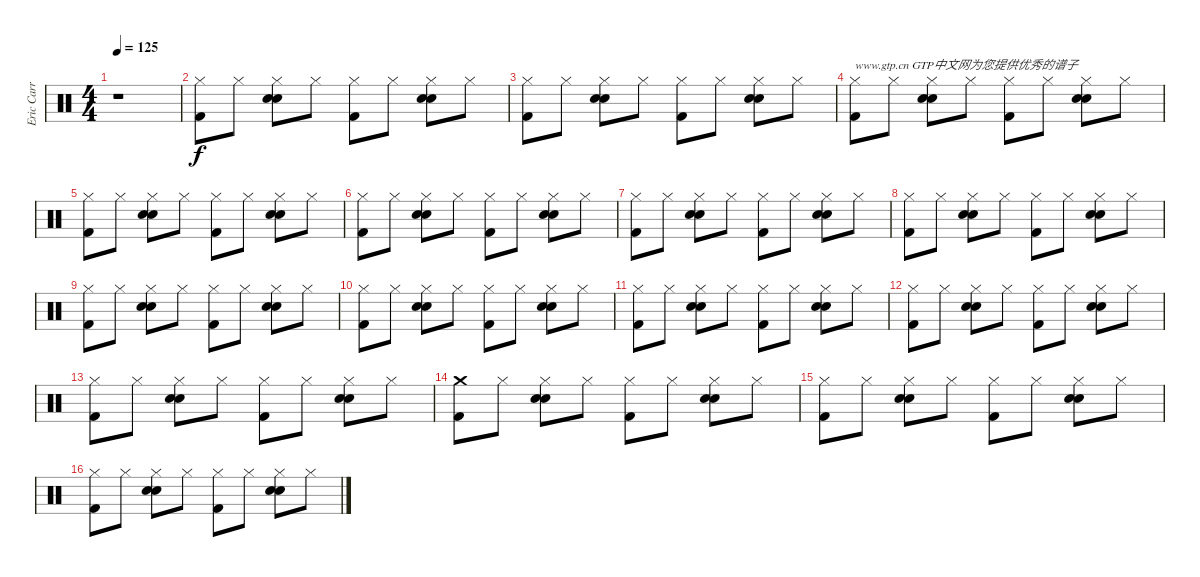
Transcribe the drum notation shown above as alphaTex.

\track ("Eric Carr" "Eric Carr") {instrument percussion}
\staff {score}
\articulation defaults
\ts (4 4)
\tempo 125
\clef neutral
\ks c
r.1{dy f} |
("Hi-Hat (closed)" "Kick (hit) 2").8 "Hi-Hat (closed)".8 ("Hi-Hat (closed)" "Electric Snare (hit)" "Snare (hit) 2").8 "Hi-Hat (closed)".8 ("Hi-Hat (closed)" "Kick (hit) 2").8 "Hi-Hat (closed)".8 ("Hi-Hat (closed)" "Snare (hit) 2" "Electric Snare (hit)").8 "Hi-Hat (closed)".8 |
("Hi-Hat (closed)" "Kick (hit) 2").8 "Hi-Hat (closed)".8 ("Hi-Hat (closed)" "Electric Snare (hit)" "Snare (hit) 2").8 "Hi-Hat (closed)".8 ("Hi-Hat (closed)" "Kick (hit) 2").8 "Hi-Hat (closed)".8 ("Hi-Hat (closed)" "Snare (hit) 2" "Electric Snare (hit)").8 "Hi-Hat (closed)".8 |
("Hi-Hat (closed)" "Kick (hit) 2").8{txt "www.gtp.cn GTP中文网为您提供优秀的谱子"} "Hi-Hat (closed)".8 ("Hi-Hat (closed)" "Electric Snare (hit)" "Snare (hit) 2").8 "Hi-Hat (closed)".8 ("Hi-Hat (closed)" "Kick (hit) 2").8 "Hi-Hat (closed)".8 ("Hi-Hat (closed)" "Snare (hit) 2" "Electric Snare (hit)").8 "Hi-Hat (closed)".8 |
("Hi-Hat (closed)" "Kick (hit) 2").8 "Hi-Hat (closed)".8 ("Hi-Hat (closed)" "Electric Snare (hit)" "Snare (hit) 2").8 "Hi-Hat (closed)".8 ("Hi-Hat (closed)" "Kick (hit) 2").8 "Hi-Hat (closed)".8 ("Hi-Hat (closed)" "Snare (hit) 2" "Electric Snare (hit)").8 "Hi-Hat (closed)".8 |
("Hi-Hat (closed)" "Kick (hit) 2").8 "Hi-Hat (closed)".8 ("Hi-Hat (closed)" "Electric Snare (hit)" "Snare (hit) 2").8 "Hi-Hat (closed)".8 ("Hi-Hat (closed)" "Kick (hit) 2").8 "Hi-Hat (closed)".8 ("Hi-Hat (closed)" "Snare (hit) 2" "Electric Snare (hit)").8 "Hi-Hat (closed)".8 |
("Hi-Hat (closed)" "Kick (hit) 2").8 "Hi-Hat (closed)".8 ("Hi-Hat (closed)" "Electric Snare (hit)" "Snare (hit) 2").8 "Hi-Hat (closed)".8 ("Hi-Hat (closed)" "Kick (hit) 2").8 "Hi-Hat (closed)".8 ("Hi-Hat (closed)" "Snare (hit) 2" "Electric Snare (hit)").8 "Hi-Hat (closed)".8 |
("Hi-Hat (closed)" "Kick (hit) 2").8 "Hi-Hat (closed)".8 ("Hi-Hat (closed)" "Electric Snare (hit)" "Snare (hit) 2").8 "Hi-Hat (closed)".8 ("Hi-Hat (closed)" "Kick (hit) 2").8 "Hi-Hat (closed)".8 ("Hi-Hat (closed)" "Snare (hit) 2" "Electric Snare (hit)").8 "Hi-Hat (closed)".8 |
("Hi-Hat (closed)" "Kick (hit) 2").8 "Hi-Hat (closed)".8 ("Hi-Hat (closed)" "Electric Snare (hit)" "Snare (hit) 2").8 "Hi-Hat (closed)".8 ("Hi-Hat (closed)" "Kick (hit) 2").8 "Hi-Hat (closed)".8 ("Hi-Hat (closed)" "Snare (hit) 2" "Electric Snare (hit)").8 "Hi-Hat (closed)".8 |
("Hi-Hat (closed)" "Kick (hit) 2").8 "Hi-Hat (closed)".8 ("Hi-Hat (closed)" "Electric Snare (hit)" "Snare (hit) 2").8 "Hi-Hat (closed)".8 ("Hi-Hat (closed)" "Kick (hit) 2").8 "Hi-Hat (closed)".8 ("Hi-Hat (closed)" "Snare (hit) 2" "Electric Snare (hit)").8 "Hi-Hat (closed)".8 |
("Hi-Hat (closed)" "Kick (hit) 2").8 "Hi-Hat (closed)".8 ("Hi-Hat (closed)" "Electric Snare (hit)" "Snare (hit) 2").8 "Hi-Hat (closed)".8 ("Hi-Hat (closed)" "Kick (hit) 2").8 "Hi-Hat (closed)".8 ("Hi-Hat (closed)" "Snare (hit) 2" "Electric Snare (hit)").8 "Hi-Hat (closed)".8 |
("Hi-Hat (closed)" "Kick (hit) 2").8 "Hi-Hat (closed)".8 ("Hi-Hat (closed)" "Electric Snare (hit)" "Snare (hit) 2").8 "Hi-Hat (closed)".8 ("Hi-Hat (closed)" "Kick (hit) 2").8 "Hi-Hat (closed)".8 ("Hi-Hat (closed)" "Snare (hit) 2" "Electric Snare (hit)").8 "Hi-Hat (closed)".8 |
("Hi-Hat (closed)" "Kick (hit) 2").8 "Hi-Hat (closed)".8 ("Hi-Hat (closed)" "Electric Snare (hit)" "Snare (hit) 2").8 "Hi-Hat (closed)".8 ("Hi-Hat (closed)" "Kick (hit) 2").8 "Hi-Hat (closed)".8 ("Hi-Hat (closed)" "Snare (hit) 2" "Electric Snare (hit)").8 "Hi-Hat (closed)".8 |
("Crash medium (hit)" "Kick (hit) 2").8 "Hi-Hat (closed)".8 ("Hi-Hat (closed)" "Electric Snare (hit)" "Snare (hit) 2").8 "Hi-Hat (closed)".8 ("Hi-Hat (closed)" "Kick (hit) 2").8 "Hi-Hat (closed)".8 ("Hi-Hat (closed)" "Snare (hit) 2" "Electric Snare (hit)").8 "Hi-Hat (closed)".8 |
("Hi-Hat (closed)" "Kick (hit) 2").8 "Hi-Hat (closed)".8 ("Hi-Hat (closed)" "Electric Snare (hit)" "Snare (hit) 2").8 "Hi-Hat (closed)".8 ("Hi-Hat (closed)" "Kick (hit) 2").8 "Hi-Hat (closed)".8 ("Hi-Hat (closed)" "Snare (hit) 2" "Electric Snare (hit)").8 "Hi-Hat (closed)".8 |
("Hi-Hat (closed)" "Kick (hit) 2").8 "Hi-Hat (closed)".8 ("Hi-Hat (closed)" "Electric Snare (hit)" "Snare (hit) 2").8 "Hi-Hat (closed)".8 ("Hi-Hat (closed)" "Kick (hit) 2").8 "Hi-Hat (closed)".8 ("Hi-Hat (closed)" "Snare (hit) 2" "Electric Snare (hit)").8 "Hi-Hat (closed)".8
